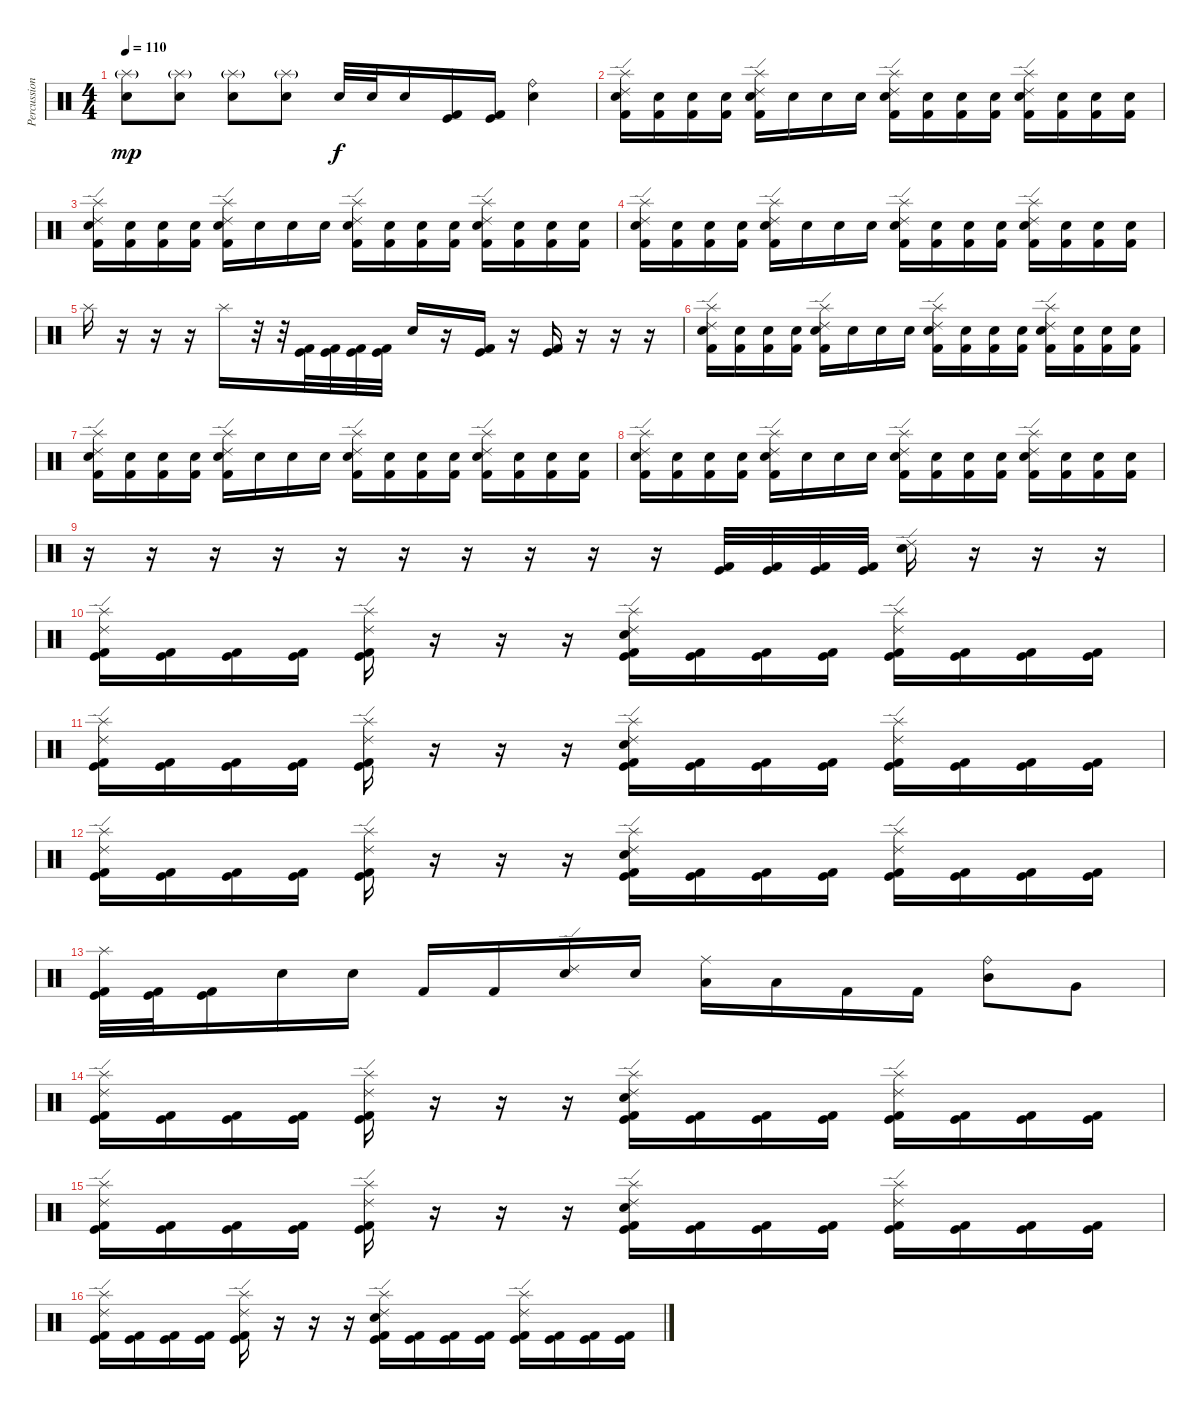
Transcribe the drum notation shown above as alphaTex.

\track ("Percussion" "Percussion") {instrument percussion}
\staff {score}
\articulation defaults
\ts (4 4)
\tempo 110
\clef neutral
\ks c
("Splash (hit)"{g} "Electric Snare (hit)").8{dy mp} ("Splash (hit)"{g} "Electric Snare (hit)").8 ("Splash (hit)"{g} "Electric Snare (hit)").8 ("Splash (hit)"{g} "Electric Snare (hit)").8 "Electric Snare (hit)".32{dy f} "Electric Snare (hit)".32 "Electric Snare (hit)".16 ("Kick (hit)" "Kick (hit) 2").16 ("Kick (hit)" "Kick (hit) 2").16 ("Ride (bell)" "Electric Snare (hit)").4 |
("Ride (edge) 2" "Electric Snare (hit)" "Splash (hit)" "Kick (hit) 2").16 ("Electric Snare (hit)" "Kick (hit) 2").16 ("Electric Snare (hit)" "Kick (hit) 2").16 ("Electric Snare (hit)" "Kick (hit) 2").16 ("Ride (edge) 2" "Electric Snare (hit)" "Splash (hit)" "Kick (hit) 2").16 "Electric Snare (hit)".16 "Electric Snare (hit)".16 "Electric Snare (hit)".16 ("Ride (edge) 2" "Electric Snare (hit)" "Splash (hit)" "Kick (hit) 2").16 ("Electric Snare (hit)" "Kick (hit) 2").16 ("Electric Snare (hit)" "Kick (hit) 2").16 ("Electric Snare (hit)" "Kick (hit) 2").16 ("Ride (edge) 2" "Electric Snare (hit)" "Splash (hit)" "Kick (hit) 2").16 ("Electric Snare (hit)" "Kick (hit) 2").16 ("Electric Snare (hit)" "Kick (hit) 2").16 ("Electric Snare (hit)" "Kick (hit) 2").16 |
("Ride (edge) 2" "Electric Snare (hit)" "Splash (hit)" "Kick (hit) 2").16 ("Electric Snare (hit)" "Kick (hit) 2").16 ("Electric Snare (hit)" "Kick (hit) 2").16 ("Electric Snare (hit)" "Kick (hit) 2").16 ("Ride (edge) 2" "Electric Snare (hit)" "Splash (hit)" "Kick (hit) 2").16 "Electric Snare (hit)".16 "Electric Snare (hit)".16 "Electric Snare (hit)".16 ("Ride (edge) 2" "Electric Snare (hit)" "Splash (hit)" "Kick (hit) 2").16 ("Electric Snare (hit)" "Kick (hit) 2").16 ("Electric Snare (hit)" "Kick (hit) 2").16 ("Electric Snare (hit)" "Kick (hit) 2").16 ("Ride (edge) 2" "Electric Snare (hit)" "Splash (hit)" "Kick (hit) 2").16 ("Electric Snare (hit)" "Kick (hit) 2").16 ("Electric Snare (hit)" "Kick (hit) 2").16 ("Electric Snare (hit)" "Kick (hit) 2").16 |
("Ride (edge) 2" "Electric Snare (hit)" "Splash (hit)" "Kick (hit) 2").16 ("Electric Snare (hit)" "Kick (hit) 2").16 ("Electric Snare (hit)" "Kick (hit) 2").16 ("Electric Snare (hit)" "Kick (hit) 2").16 ("Ride (edge) 2" "Electric Snare (hit)" "Splash (hit)" "Kick (hit) 2").16 "Electric Snare (hit)".16 "Electric Snare (hit)".16 "Electric Snare (hit)".16 ("Ride (edge) 2" "Electric Snare (hit)" "Splash (hit)" "Kick (hit) 2").16 ("Electric Snare (hit)" "Kick (hit) 2").16 ("Electric Snare (hit)" "Kick (hit) 2").16 ("Electric Snare (hit)" "Kick (hit) 2").16 ("Ride (edge) 2" "Electric Snare (hit)" "Splash (hit)" "Kick (hit) 2").16 ("Electric Snare (hit)" "Kick (hit) 2").16 ("Electric Snare (hit)" "Kick (hit) 2").16 ("Electric Snare (hit)" "Kick (hit) 2").16 |
"Splash (hit)".16 r.16 r.16 r.16 "Splash (hit)".16 r.32 r.32 ("Kick (hit)" "Kick (hit) 2").32 ("Kick (hit)" "Kick (hit) 2").32 ("Kick (hit)" "Kick (hit) 2").32 ("Kick (hit)" "Kick (hit) 2").32 "Electric Snare (hit)".16 r.16 ("Kick (hit)" "Kick (hit) 2").16 r.16 ("Kick (hit)" "Kick (hit) 2").16 r.16 r.16 r.16 |
("Ride (edge) 2" "Electric Snare (hit)" "Splash (hit)" "Kick (hit) 2").16 ("Electric Snare (hit)" "Kick (hit) 2").16 ("Electric Snare (hit)" "Kick (hit) 2").16 ("Electric Snare (hit)" "Kick (hit) 2").16 ("Ride (edge) 2" "Electric Snare (hit)" "Splash (hit)" "Kick (hit) 2").16 "Electric Snare (hit)".16 "Electric Snare (hit)".16 "Electric Snare (hit)".16 ("Ride (edge) 2" "Electric Snare (hit)" "Splash (hit)" "Kick (hit) 2").16 ("Electric Snare (hit)" "Kick (hit) 2").16 ("Electric Snare (hit)" "Kick (hit) 2").16 ("Electric Snare (hit)" "Kick (hit) 2").16 ("Ride (edge) 2" "Electric Snare (hit)" "Splash (hit)" "Kick (hit) 2").16 ("Electric Snare (hit)" "Kick (hit) 2").16 ("Electric Snare (hit)" "Kick (hit) 2").16 ("Electric Snare (hit)" "Kick (hit) 2").16 |
("Ride (edge) 2" "Electric Snare (hit)" "Splash (hit)" "Kick (hit) 2").16 ("Electric Snare (hit)" "Kick (hit) 2").16 ("Electric Snare (hit)" "Kick (hit) 2").16 ("Electric Snare (hit)" "Kick (hit) 2").16 ("Ride (edge) 2" "Electric Snare (hit)" "Splash (hit)" "Kick (hit) 2").16 "Electric Snare (hit)".16 "Electric Snare (hit)".16 "Electric Snare (hit)".16 ("Ride (edge) 2" "Electric Snare (hit)" "Splash (hit)" "Kick (hit) 2").16 ("Electric Snare (hit)" "Kick (hit) 2").16 ("Electric Snare (hit)" "Kick (hit) 2").16 ("Electric Snare (hit)" "Kick (hit) 2").16 ("Ride (edge) 2" "Electric Snare (hit)" "Splash (hit)" "Kick (hit) 2").16 ("Electric Snare (hit)" "Kick (hit) 2").16 ("Electric Snare (hit)" "Kick (hit) 2").16 ("Electric Snare (hit)" "Kick (hit) 2").16 |
("Ride (edge) 2" "Electric Snare (hit)" "Splash (hit)" "Kick (hit) 2").16 ("Electric Snare (hit)" "Kick (hit) 2").16 ("Electric Snare (hit)" "Kick (hit) 2").16 ("Electric Snare (hit)" "Kick (hit) 2").16 ("Ride (edge) 2" "Electric Snare (hit)" "Splash (hit)" "Kick (hit) 2").16 "Electric Snare (hit)".16 "Electric Snare (hit)".16 "Electric Snare (hit)".16 ("Ride (edge) 2" "Electric Snare (hit)" "Splash (hit)" "Kick (hit) 2").16 ("Electric Snare (hit)" "Kick (hit) 2").16 ("Electric Snare (hit)" "Kick (hit) 2").16 ("Electric Snare (hit)" "Kick (hit) 2").16 ("Ride (edge) 2" "Electric Snare (hit)" "Splash (hit)" "Kick (hit) 2").16 ("Electric Snare (hit)" "Kick (hit) 2").16 ("Electric Snare (hit)" "Kick (hit) 2").16 ("Electric Snare (hit)" "Kick (hit) 2").16 |
r.16 r.16 r.16 r.16 r.16 r.16 r.16 r.16 r.16 r.16 ("Kick (hit)" "Kick (hit) 2").32 ("Kick (hit)" "Kick (hit) 2").32 ("Kick (hit)" "Kick (hit) 2").32 ("Kick (hit)" "Kick (hit) 2").32 ("Ride (edge) 2" "Electric Snare (hit)").16 r.16 r.16 r.16 |
("Ride (edge) 2" "Splash (hit)" "Kick (hit)" "Kick (hit) 2").16 ("Kick (hit)" "Kick (hit) 2").16 ("Kick (hit)" "Kick (hit) 2").16 ("Kick (hit)" "Kick (hit) 2").16 ("Ride (edge) 2" "Splash (hit)" "Kick (hit)" "Kick (hit) 2").16 r.16 r.16 r.16 ("Ride (edge) 2" "Electric Snare (hit)" "Splash (hit)" "Kick (hit)" "Kick (hit) 2").16 ("Kick (hit)" "Kick (hit) 2").16 ("Kick (hit)" "Kick (hit) 2").16 ("Kick (hit)" "Kick (hit) 2").16 ("Ride (edge) 2" "Splash (hit)" "Kick (hit)" "Kick (hit) 2").16 ("Kick (hit)" "Kick (hit) 2").16 ("Kick (hit)" "Kick (hit) 2").16 ("Kick (hit)" "Kick (hit) 2").16 |
("Ride (edge) 2" "Splash (hit)" "Kick (hit)" "Kick (hit) 2").16 ("Kick (hit)" "Kick (hit) 2").16 ("Kick (hit)" "Kick (hit) 2").16 ("Kick (hit)" "Kick (hit) 2").16 ("Ride (edge) 2" "Splash (hit)" "Kick (hit)" "Kick (hit) 2").16 r.16 r.16 r.16 ("Ride (edge) 2" "Electric Snare (hit)" "Splash (hit)" "Kick (hit)" "Kick (hit) 2").16 ("Kick (hit)" "Kick (hit) 2").16 ("Kick (hit)" "Kick (hit) 2").16 ("Kick (hit)" "Kick (hit) 2").16 ("Ride (edge) 2" "Splash (hit)" "Kick (hit)" "Kick (hit) 2").16 ("Kick (hit)" "Kick (hit) 2").16 ("Kick (hit)" "Kick (hit) 2").16 ("Kick (hit)" "Kick (hit) 2").16 |
("Ride (edge) 2" "Splash (hit)" "Kick (hit)" "Kick (hit) 2").16 ("Kick (hit)" "Kick (hit) 2").16 ("Kick (hit)" "Kick (hit) 2").16 ("Kick (hit)" "Kick (hit) 2").16 ("Ride (edge) 2" "Splash (hit)" "Kick (hit)" "Kick (hit) 2").16 r.16 r.16 r.16 ("Ride (edge) 2" "Electric Snare (hit)" "Splash (hit)" "Kick (hit)" "Kick (hit) 2").16 ("Kick (hit)" "Kick (hit) 2").16 ("Kick (hit)" "Kick (hit) 2").16 ("Kick (hit)" "Kick (hit) 2").16 ("Ride (edge) 2" "Splash (hit)" "Kick (hit)" "Kick (hit) 2").16 ("Kick (hit)" "Kick (hit) 2").16 ("Kick (hit)" "Kick (hit) 2").16 ("Kick (hit)" "Kick (hit) 2").16 |
("Splash (hit)" "Kick (hit)" "Kick (hit) 2").32 ("Kick (hit)" "Kick (hit) 2").32 ("Kick (hit)" "Kick (hit) 2").16 "Electric Snare (hit)".16 "Electric Snare (hit)".16 "Kick (hit) 2".16 "Kick (hit) 2".16 ("Ride (edge) 2" "Electric Snare (hit)").16 "Electric Snare (hit)".16 ("Ride (middle)" "Low Tom (hit)").16 "Low Tom (hit)".16 "Kick (hit) 2".16 "Kick (hit) 2".16 ("Ride (bell)" "Mid Tom (hit)").8 "Very Low Tom (hit)".8 |
("Ride (edge) 2" "Splash (hit)" "Kick (hit)" "Kick (hit) 2").16 ("Kick (hit)" "Kick (hit) 2").16 ("Kick (hit)" "Kick (hit) 2").16 ("Kick (hit)" "Kick (hit) 2").16 ("Ride (edge) 2" "Splash (hit)" "Kick (hit)" "Kick (hit) 2").16 r.16 r.16 r.16 ("Ride (edge) 2" "Electric Snare (hit)" "Splash (hit)" "Kick (hit)" "Kick (hit) 2").16 ("Kick (hit)" "Kick (hit) 2").16 ("Kick (hit)" "Kick (hit) 2").16 ("Kick (hit)" "Kick (hit) 2").16 ("Ride (edge) 2" "Splash (hit)" "Kick (hit)" "Kick (hit) 2").16 ("Kick (hit)" "Kick (hit) 2").16 ("Kick (hit)" "Kick (hit) 2").16 ("Kick (hit)" "Kick (hit) 2").16 |
("Ride (edge) 2" "Splash (hit)" "Kick (hit)" "Kick (hit) 2").16 ("Kick (hit)" "Kick (hit) 2").16 ("Kick (hit)" "Kick (hit) 2").16 ("Kick (hit)" "Kick (hit) 2").16 ("Ride (edge) 2" "Splash (hit)" "Kick (hit)" "Kick (hit) 2").16 r.16 r.16 r.16 ("Ride (edge) 2" "Electric Snare (hit)" "Splash (hit)" "Kick (hit)" "Kick (hit) 2").16 ("Kick (hit)" "Kick (hit) 2").16 ("Kick (hit)" "Kick (hit) 2").16 ("Kick (hit)" "Kick (hit) 2").16 ("Ride (edge) 2" "Splash (hit)" "Kick (hit)" "Kick (hit) 2").16 ("Kick (hit)" "Kick (hit) 2").16 ("Kick (hit)" "Kick (hit) 2").16 ("Kick (hit)" "Kick (hit) 2").16 |
("Ride (edge) 2" "Splash (hit)" "Kick (hit)" "Kick (hit) 2").16 ("Kick (hit)" "Kick (hit) 2").16 ("Kick (hit)" "Kick (hit) 2").16 ("Kick (hit)" "Kick (hit) 2").16 ("Ride (edge) 2" "Splash (hit)" "Kick (hit)" "Kick (hit) 2").16 r.16 r.16 r.16 ("Ride (edge) 2" "Electric Snare (hit)" "Splash (hit)" "Kick (hit)" "Kick (hit) 2").16 ("Kick (hit)" "Kick (hit) 2").16 ("Kick (hit)" "Kick (hit) 2").16 ("Kick (hit)" "Kick (hit) 2").16 ("Ride (edge) 2" "Splash (hit)" "Kick (hit)" "Kick (hit) 2").16 ("Kick (hit)" "Kick (hit) 2").16 ("Kick (hit)" "Kick (hit) 2").16 ("Kick (hit)" "Kick (hit) 2").16
